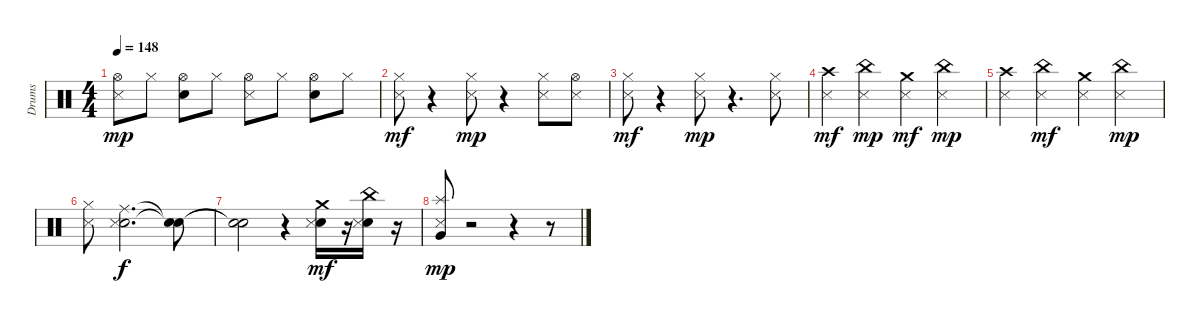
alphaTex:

\track ("Drums" "Drums") {instrument percussion}
\staff {score}
\articulation defaults
\ts (4 4)
\tempo 148
\clef neutral
\ks c
("Hi-Hat (open)" "Metronome (hit)").8{dy mp} "Hi-Hat (closed)".8 ("Hi-Hat (open)" "Electric Snare (hit)").8 "Hi-Hat (closed)".8 ("Hi-Hat (open)" "Metronome (hit)").8 "Hi-Hat (closed)".8 ("Hi-Hat (open)" "Electric Snare (hit)").8 "Hi-Hat (closed)".8 |
("Hi-Hat (closed)" "Metronome (hit)").8{dy mf} r.4 ("Hi-Hat (closed)" "Metronome (hit)").8{dy mp} r.4 ("Hi-Hat (closed)" "Metronome (hit)").8 ("Hi-Hat (open)" "Metronome (hit)").8 |
("Hi-Hat (closed)" "Metronome (hit)").8{dy mf} r.4 ("Hi-Hat (closed)" "Metronome (hit)").8{dy mp} r.4{d} ("Hi-Hat (closed)" "Metronome (hit)").8 |
("Crash high (hit)" "Metronome (hit)").4{dy mf} ("China (hit)" "Metronome (hit)").4{dy mp} ("Crash medium (hit)" "Metronome (hit)").4{dy mf} ("China (hit)" "Metronome (hit)").4{dy mp} |
("Crash high (hit)" "Metronome (hit)").4 ("China (hit)" "Metronome (hit)").4{dy mf} ("Crash medium (hit)" "Metronome (hit)").4 ("China (hit)" "Metronome (hit)").4{dy mp} |
("Hi-Hat (closed)" "Metronome (hit)").8 ("Ride (middle)" "Electric Snare (hit)" "Metronome (hit)").2{d dy f} ("Snare (hit)"{t} "Snare (hit)"{t}).8 |
("Snare (hit)"{t} "Snare (hit)"{t}).2 r.4 ("Crash medium (hit)" "Electric Snare (hit)" "Metronome (hit)").16{dy mf} r.16 ("China (hit)" "Electric Snare (hit)" "Metronome (hit)").16 r.16 |
("Splash (hit)" "Very Low Tom (hit)" "Metronome (hit)").8{dy mp} r.2 r.4 r.8
